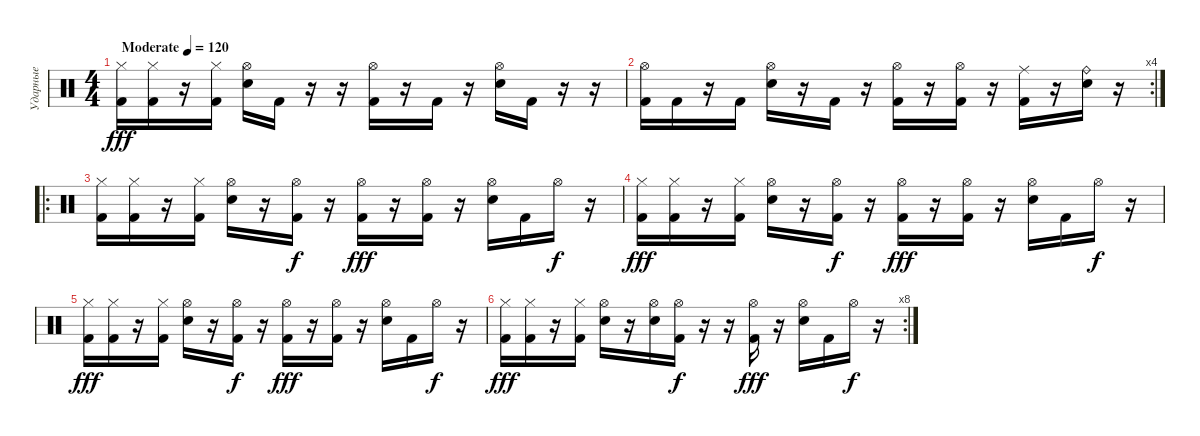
\track ("Ударные" "Ударные") {instrument percussion}
\staff {score}
\articulation defaults
\ts (4 4)
\tempo (120 "Moderate")
\clef neutral
\ks c
("Hi-Hat (closed)" "Kick (hit) 2").16{dy fff} ("Hi-Hat (closed)" "Kick (hit) 2").16 r.16 ("Hi-Hat (closed)" "Kick (hit) 2").16 ("Hi-Hat (open)" "Electric Snare (hit)").16 "Kick (hit) 2".16 r.16 r.16 ("Hi-Hat (open)" "Kick (hit) 2").16 r.16 "Kick (hit) 2".16 r.16 ("Hi-Hat (open)" "Electric Snare (hit)").16 "Kick (hit) 2".16 r.16 r.16 |
\rc 4
("Hi-Hat (open)" "Kick (hit) 2").16 "Kick (hit) 2".16 r.16 "Kick (hit) 2".16 ("Hi-Hat (open)" "Electric Snare (hit)").16 r.16 "Kick (hit) 2".16 r.16 ("Hi-Hat (open)" "Kick (hit) 2").16 r.16 ("Hi-Hat (open)" "Kick (hit) 2").16 r.16 ("Ride (middle)" "Kick (hit) 2").16 r.16 ("Ride (bell)" "Electric Snare (hit)").16 r.16 |
\ro
("Hi-Hat (closed)" "Kick (hit) 2").16 ("Hi-Hat (closed)" "Kick (hit) 2").16 r.16 ("Hi-Hat (closed)" "Kick (hit) 2").16 ("Hi-Hat (open)" "Electric Snare (hit)").16 r.16 ("Hi-Hat (open)" "Kick (hit) 2").16{dy f} r.16 ("Hi-Hat (open)" "Kick (hit) 2").16{dy fff} r.16 ("Hi-Hat (open)" "Kick (hit) 2").16 r.16 ("Hi-Hat (open)" "Electric Snare (hit)").16 "Kick (hit) 2".16 "Hi-Hat (open)".16{dy f} r.16 |
("Hi-Hat (closed)" "Kick (hit) 2").16{dy fff} ("Hi-Hat (closed)" "Kick (hit) 2").16 r.16 ("Hi-Hat (closed)" "Kick (hit) 2").16 ("Hi-Hat (open)" "Electric Snare (hit)").16 r.16 ("Hi-Hat (open)" "Kick (hit) 2").16{dy f} r.16 ("Hi-Hat (open)" "Kick (hit) 2").16{dy fff} r.16 ("Hi-Hat (open)" "Kick (hit) 2").16 r.16 ("Hi-Hat (open)" "Electric Snare (hit)").16 "Kick (hit) 2".16 "Hi-Hat (open)".16{dy f} r.16 |
("Hi-Hat (closed)" "Kick (hit) 2").16{dy fff} ("Hi-Hat (closed)" "Kick (hit) 2").16 r.16 ("Hi-Hat (closed)" "Kick (hit) 2").16 ("Hi-Hat (open)" "Electric Snare (hit)").16 r.16 ("Hi-Hat (open)" "Kick (hit) 2").16{dy f} r.16 ("Hi-Hat (open)" "Kick (hit) 2").16{dy fff} r.16 ("Hi-Hat (open)" "Kick (hit) 2").16 r.16 ("Hi-Hat (open)" "Electric Snare (hit)").16 "Kick (hit) 2".16 "Hi-Hat (open)".16{dy f} r.16 |
\rc 8
("Hi-Hat (closed)" "Kick (hit) 2").16{dy fff} ("Hi-Hat (closed)" "Kick (hit) 2").16 r.16 ("Hi-Hat (closed)" "Kick (hit) 2").16 ("Hi-Hat (open)" "Electric Snare (hit)").16 r.16 ("Hi-Hat (open)" "Electric Snare (hit)").16 ("Hi-Hat (open)" "Kick (hit) 2").16{dy f} r.16 r.16 ("Hi-Hat (open)" "Kick (hit) 2").16{dy fff} r.16 ("Hi-Hat (open)" "Electric Snare (hit)").16 "Kick (hit) 2".16 "Hi-Hat (open)".16{dy f} r.16
